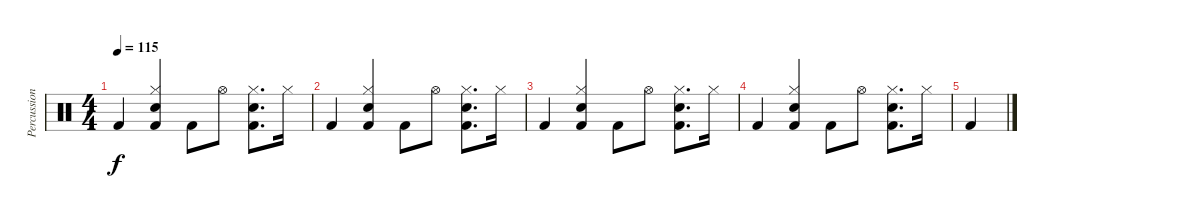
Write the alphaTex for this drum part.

\track ("Percussion" "Percussion") {instrument percussion}
\staff {score}
\articulation defaults
\ts (4 4)
\tempo 115
\clef neutral
\ks c "Kick (hit) 2".4{dy f}
("Hi-Hat (closed)" "Hand Clap (hit)" "Kick (hit) 2").4 "Kick (hit) 2".8 "Hi-Hat (open)".8 ("Hi-Hat (closed)" "Hand Clap (hit)" "Kick (hit) 2").8{d} "Hi-Hat (closed)".16 |
"Kick (hit) 2".4 ("Hi-Hat (closed)" "Hand Clap (hit)" "Kick (hit) 2").4 "Kick (hit) 2".8 "Hi-Hat (open)".8 ("Hi-Hat (closed)" "Hand Clap (hit)" "Kick (hit) 2").8{d} "Hi-Hat (closed)".16 |
"Kick (hit) 2".4 ("Hi-Hat (closed)" "Hand Clap (hit)" "Kick (hit) 2").4 "Kick (hit) 2".8 "Hi-Hat (open)".8 ("Hi-Hat (closed)" "Hand Clap (hit)" "Kick (hit) 2").8{d} "Hi-Hat (closed)".16 |
"Kick (hit) 2".4 ("Hi-Hat (closed)" "Hand Clap (hit)" "Kick (hit) 2").4 "Kick (hit) 2".8 "Hi-Hat (open)".8 ("Hi-Hat (closed)" "Hand Clap (hit)" "Kick (hit) 2").8{d} "Hi-Hat (closed)".16 |
"Kick (hit) 2".4
